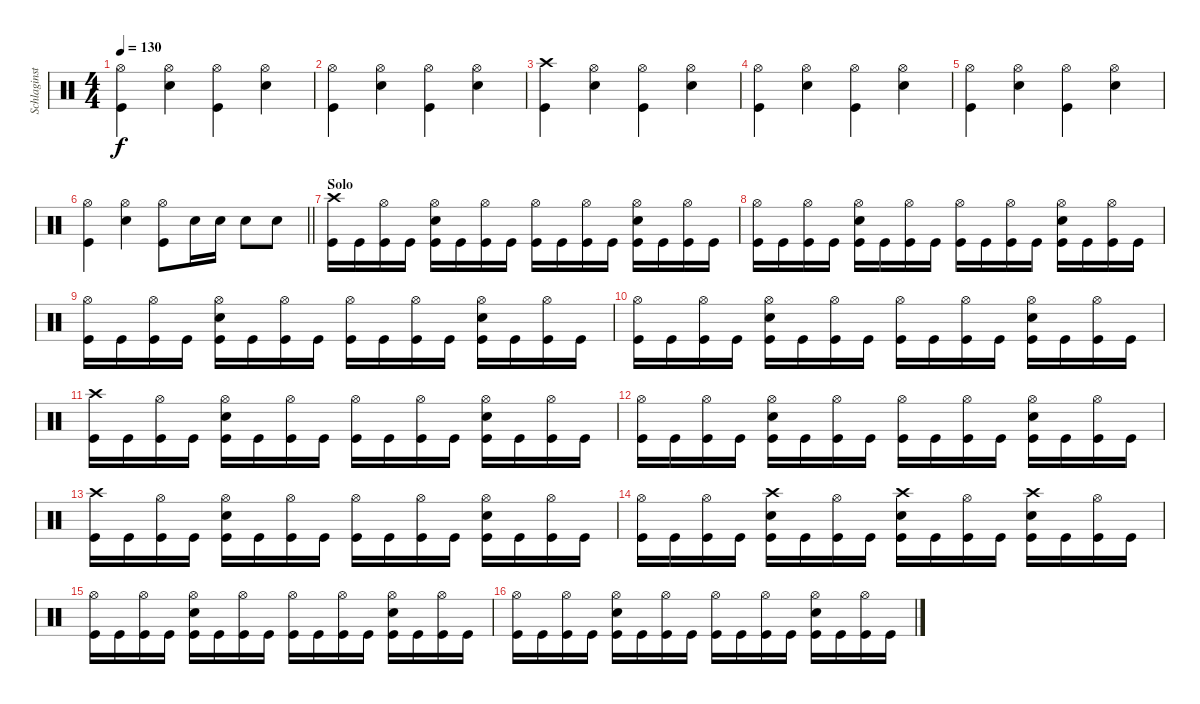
\track ("Schlaginstrumente - Auswahl" "Schlaginst") {instrument percussion}
\staff {score}
\articulation defaults
\ts (4 4)
\tempo 130
\clef neutral
\ks c
("Hi-Hat (open)" "Kick (hit)").4{dy f} ("Hi-Hat (open)" "Snare (hit) 2").4 ("Hi-Hat (open)" "Kick (hit)").4 ("Hi-Hat (open)" "Snare (hit) 2").4 |
("Hi-Hat (open)" "Kick (hit)").4 ("Hi-Hat (open)" "Snare (hit) 2").4 ("Hi-Hat (open)" "Kick (hit)").4 ("Hi-Hat (open)" "Snare (hit) 2").4 |
("Crash high (hit)" "Kick (hit)").4 ("Hi-Hat (open)" "Snare (hit) 2").4 ("Hi-Hat (open)" "Kick (hit)").4 ("Hi-Hat (open)" "Snare (hit) 2").4 |
("Hi-Hat (open)" "Kick (hit)").4 ("Hi-Hat (open)" "Snare (hit) 2").4 ("Hi-Hat (open)" "Kick (hit)").4 ("Hi-Hat (open)" "Snare (hit) 2").4 |
("Hi-Hat (open)" "Kick (hit)").4 ("Hi-Hat (open)" "Snare (hit) 2").4 ("Hi-Hat (open)" "Kick (hit)").4 ("Hi-Hat (open)" "Snare (hit) 2").4 |
\barLineRight lightlight
("Hi-Hat (open)" "Kick (hit)").4 ("Snare (hit) 2" "Hi-Hat (open)").4 ("Kick (hit)" "Hi-Hat (open)").8 "Snare (hit) 2".16 "Snare (hit) 2".16 "Snare (hit) 2".8 "Snare (hit) 2".8 |
\section ("" "Solo")
("Kick (hit)" "Crash high (hit)").16 "Kick (hit)".16 ("Kick (hit)" "Hi-Hat (open)").16 "Kick (hit)".16 ("Kick (hit)" "Snare (hit) 2" "Hi-Hat (open)").16 "Kick (hit)".16 ("Kick (hit)" "Hi-Hat (open)").16 "Kick (hit)".16 ("Kick (hit)" "Hi-Hat (open)").16 "Kick (hit)".16 ("Kick (hit)" "Hi-Hat (open)").16 "Kick (hit)".16 ("Kick (hit)" "Snare (hit) 2" "Hi-Hat (open)").16 "Kick (hit)".16 ("Kick (hit)" "Hi-Hat (open)").16 "Kick (hit)".16 |
("Kick (hit)" "Hi-Hat (open)").16 "Kick (hit)".16 ("Kick (hit)" "Hi-Hat (open)").16 "Kick (hit)".16 ("Kick (hit)" "Snare (hit) 2" "Hi-Hat (open)").16 "Kick (hit)".16 ("Kick (hit)" "Hi-Hat (open)").16 "Kick (hit)".16 ("Kick (hit)" "Hi-Hat (open)").16 "Kick (hit)".16 ("Kick (hit)" "Hi-Hat (open)").16 "Kick (hit)".16 ("Kick (hit)" "Snare (hit) 2" "Hi-Hat (open)").16 "Kick (hit)".16 ("Kick (hit)" "Hi-Hat (open)").16 "Kick (hit)".16 |
("Kick (hit)" "Hi-Hat (open)").16 "Kick (hit)".16 ("Kick (hit)" "Hi-Hat (open)").16 "Kick (hit)".16 ("Kick (hit)" "Snare (hit) 2" "Hi-Hat (open)").16 "Kick (hit)".16 ("Kick (hit)" "Hi-Hat (open)").16 "Kick (hit)".16 ("Kick (hit)" "Hi-Hat (open)").16 "Kick (hit)".16 ("Kick (hit)" "Hi-Hat (open)").16 "Kick (hit)".16 ("Kick (hit)" "Snare (hit) 2" "Hi-Hat (open)").16 "Kick (hit)".16 ("Kick (hit)" "Hi-Hat (open)").16 "Kick (hit)".16 |
("Kick (hit)" "Hi-Hat (open)").16 "Kick (hit)".16 ("Kick (hit)" "Hi-Hat (open)").16 "Kick (hit)".16 ("Kick (hit)" "Snare (hit) 2" "Hi-Hat (open)").16 "Kick (hit)".16 ("Kick (hit)" "Hi-Hat (open)").16 "Kick (hit)".16 ("Kick (hit)" "Hi-Hat (open)").16 "Kick (hit)".16 ("Kick (hit)" "Hi-Hat (open)").16 "Kick (hit)".16 ("Kick (hit)" "Snare (hit) 2" "Hi-Hat (open)").16 "Kick (hit)".16 ("Kick (hit)" "Hi-Hat (open)").16 "Kick (hit)".16 |
("Kick (hit)" "Crash high (hit)").16 "Kick (hit)".16 ("Kick (hit)" "Hi-Hat (open)").16 "Kick (hit)".16 ("Kick (hit)" "Snare (hit) 2" "Hi-Hat (open)").16 "Kick (hit)".16 ("Kick (hit)" "Hi-Hat (open)").16 "Kick (hit)".16 ("Kick (hit)" "Hi-Hat (open)").16 "Kick (hit)".16 ("Kick (hit)" "Hi-Hat (open)").16 "Kick (hit)".16 ("Kick (hit)" "Snare (hit) 2" "Hi-Hat (open)").16 "Kick (hit)".16 ("Kick (hit)" "Hi-Hat (open)").16 "Kick (hit)".16 |
("Kick (hit)" "Hi-Hat (open)").16 "Kick (hit)".16 ("Kick (hit)" "Hi-Hat (open)").16 "Kick (hit)".16 ("Kick (hit)" "Snare (hit) 2" "Hi-Hat (open)").16 "Kick (hit)".16 ("Kick (hit)" "Hi-Hat (open)").16 "Kick (hit)".16 ("Kick (hit)" "Hi-Hat (open)").16 "Kick (hit)".16 ("Kick (hit)" "Hi-Hat (open)").16 "Kick (hit)".16 ("Kick (hit)" "Snare (hit) 2" "Hi-Hat (open)").16 "Kick (hit)".16 ("Kick (hit)" "Hi-Hat (open)").16 "Kick (hit)".16 |
("Kick (hit)" "Crash high (hit)").16 "Kick (hit)".16 ("Kick (hit)" "Hi-Hat (open)").16 "Kick (hit)".16 ("Kick (hit)" "Snare (hit) 2" "Hi-Hat (open)").16 "Kick (hit)".16 ("Kick (hit)" "Hi-Hat (open)").16 "Kick (hit)".16 ("Kick (hit)" "Hi-Hat (open)").16 "Kick (hit)".16 ("Kick (hit)" "Hi-Hat (open)").16 "Kick (hit)".16 ("Kick (hit)" "Snare (hit) 2" "Hi-Hat (open)").16 "Kick (hit)".16 ("Kick (hit)" "Hi-Hat (open)").16 "Kick (hit)".16 |
("Kick (hit)" "Hi-Hat (open)").16 "Kick (hit)".16 ("Kick (hit)" "Hi-Hat (open)").16 "Kick (hit)".16 ("Kick (hit)" "Snare (hit) 2" "Crash high (hit)").16 "Kick (hit)".16 ("Kick (hit)" "Hi-Hat (open)").16 "Kick (hit)".16 ("Kick (hit)" "Crash high (hit)" "Snare (hit) 2").16 "Kick (hit)".16 ("Kick (hit)" "Hi-Hat (open)").16 "Kick (hit)".16 ("Kick (hit)" "Snare (hit) 2" "Crash high (hit)").16 "Kick (hit)".16 ("Kick (hit)" "Hi-Hat (open)").16 "Kick (hit)".16 |
("Kick (hit)" "Hi-Hat (open)").16 "Kick (hit)".16 ("Kick (hit)" "Hi-Hat (open)").16 "Kick (hit)".16 ("Kick (hit)" "Snare (hit) 2" "Hi-Hat (open)").16 "Kick (hit)".16 ("Kick (hit)" "Hi-Hat (open)").16 "Kick (hit)".16 ("Kick (hit)" "Hi-Hat (open)").16 "Kick (hit)".16 ("Kick (hit)" "Hi-Hat (open)").16 "Kick (hit)".16 ("Kick (hit)" "Snare (hit) 2" "Hi-Hat (open)").16 "Kick (hit)".16 ("Kick (hit)" "Hi-Hat (open)").16 "Kick (hit)".16 |
("Kick (hit)" "Hi-Hat (open)").16 "Kick (hit)".16 ("Kick (hit)" "Hi-Hat (open)").16 "Kick (hit)".16 ("Kick (hit)" "Snare (hit) 2" "Hi-Hat (open)").16 "Kick (hit)".16 ("Kick (hit)" "Hi-Hat (open)").16 "Kick (hit)".16 ("Kick (hit)" "Hi-Hat (open)").16 "Kick (hit)".16 ("Kick (hit)" "Hi-Hat (open)").16 "Kick (hit)".16 ("Kick (hit)" "Snare (hit) 2" "Hi-Hat (open)").16 "Kick (hit)".16 ("Kick (hit)" "Hi-Hat (open)").16 "Kick (hit)".16
